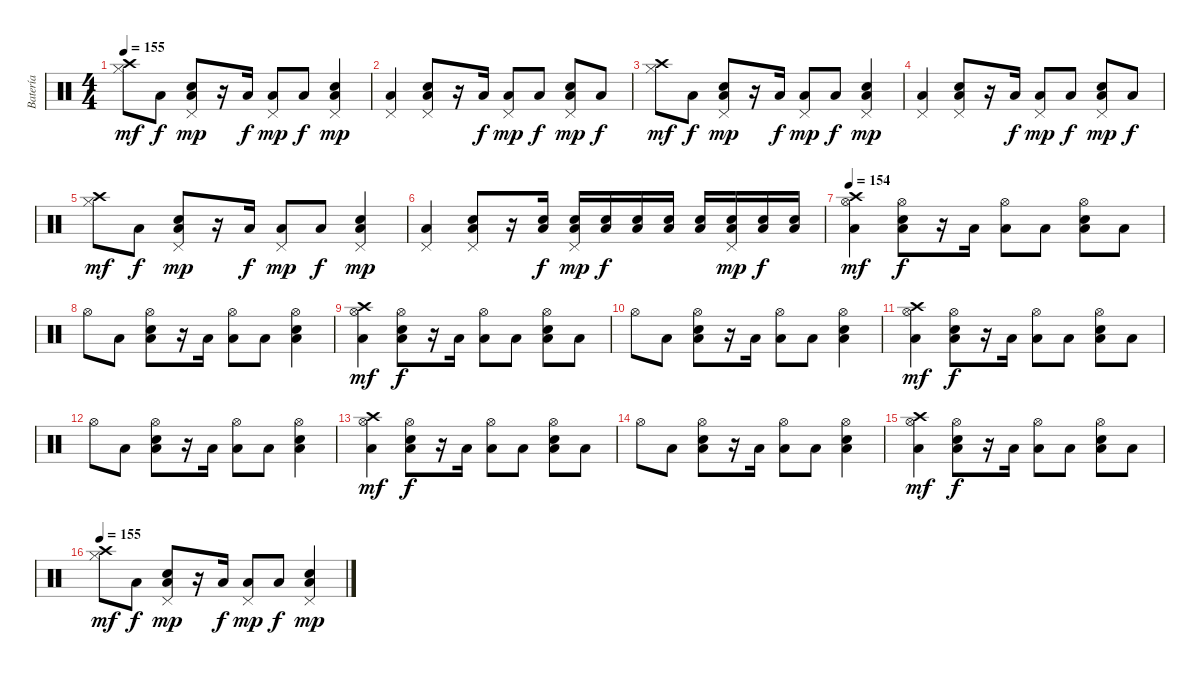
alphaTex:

\track ("Batería" "Batería") {instrument percussion}
\staff {score}
\articulation defaults
\ts (4 4)
\tempo 155
\clef neutral
\ks c
("Hi-Hat (closed)" "Crash high (hit)").8{dy mf} "Low Floor Tom (hit)".8{dy f} ("Low Floor Tom (hit)" "Snare (hit) 2" "Pedal Hi-Hat (hit)").8{dy mp} r.16 "Low Floor Tom (hit)".16{dy f} ("Low Floor Tom (hit)" "Pedal Hi-Hat (hit)").8{dy mp} "Low Floor Tom (hit)".8{dy f} ("Low Floor Tom (hit)" "Snare (hit) 2" "Pedal Hi-Hat (hit)").4{dy mp} |
("Low Floor Tom (hit)" "Pedal Hi-Hat (hit)").4 ("Low Floor Tom (hit)" "Snare (hit) 2" "Pedal Hi-Hat (hit)").8 r.16 "Low Floor Tom (hit)".16{dy f} ("Low Floor Tom (hit)" "Pedal Hi-Hat (hit)").8{dy mp} "Low Floor Tom (hit)".8{dy f} ("Low Floor Tom (hit)" "Snare (hit) 2" "Pedal Hi-Hat (hit)").8{dy mp} "Low Floor Tom (hit)".8{dy f} |
("Hi-Hat (closed)" "Crash high (hit)").8{dy mf} "Low Floor Tom (hit)".8{dy f} ("Low Floor Tom (hit)" "Snare (hit) 2" "Pedal Hi-Hat (hit)").8{dy mp} r.16 "Low Floor Tom (hit)".16{dy f} ("Low Floor Tom (hit)" "Pedal Hi-Hat (hit)").8{dy mp} "Low Floor Tom (hit)".8{dy f} ("Low Floor Tom (hit)" "Snare (hit) 2" "Pedal Hi-Hat (hit)").4{dy mp} |
("Low Floor Tom (hit)" "Pedal Hi-Hat (hit)").4 ("Low Floor Tom (hit)" "Snare (hit) 2" "Pedal Hi-Hat (hit)").8 r.16 "Low Floor Tom (hit)".16{dy f} ("Low Floor Tom (hit)" "Pedal Hi-Hat (hit)").8{dy mp} "Low Floor Tom (hit)".8{dy f} ("Low Floor Tom (hit)" "Snare (hit) 2" "Pedal Hi-Hat (hit)").8{dy mp} "Low Floor Tom (hit)".8{dy f} |
("Hi-Hat (closed)" "Crash high (hit)").8{dy mf} "Low Floor Tom (hit)".8{dy f} ("Low Floor Tom (hit)" "Snare (hit) 2" "Pedal Hi-Hat (hit)").8{dy mp} r.16 "Low Floor Tom (hit)".16{dy f} ("Low Floor Tom (hit)" "Pedal Hi-Hat (hit)").8{dy mp} "Low Floor Tom (hit)".8{dy f} ("Low Floor Tom (hit)" "Snare (hit) 2" "Pedal Hi-Hat (hit)").4{dy mp} |
("Low Floor Tom (hit)" "Pedal Hi-Hat (hit)").4 ("Low Floor Tom (hit)" "Snare (hit) 2" "Pedal Hi-Hat (hit)").8 r.16 ("Low Floor Tom (hit)" "Snare (hit) 2").16{dy f} ("Low Floor Tom (hit)" "Snare (hit) 2" "Pedal Hi-Hat (hit)").16{dy mp} ("Low Floor Tom (hit)" "Snare (hit) 2").16{dy f} ("Low Floor Tom (hit)" "Snare (hit) 2").16 ("Low Floor Tom (hit)" "Snare (hit) 2").16 ("Low Floor Tom (hit)" "Snare (hit) 2").16 ("Low Floor Tom (hit)" "Snare (hit) 2" "Pedal Hi-Hat (hit)").16{dy mp} ("Low Floor Tom (hit)" "Snare (hit) 2").16{dy f} ("Low Floor Tom (hit)" "Snare (hit) 2").16 |
\tempo 154
("Low Floor Tom (hit)" "Hi-Hat (open)" "Crash high (hit)").4{dy mf} ("Low Floor Tom (hit)" "Snare (hit) 2" "Hi-Hat (open)").8{dy f} r.16 "Low Floor Tom (hit)".16 ("Low Floor Tom (hit)" "Hi-Hat (open)").8 "Low Floor Tom (hit)".8 ("Low Floor Tom (hit)" "Snare (hit) 2" "Hi-Hat (open)").8 "Low Floor Tom (hit)".8 |
"Hi-Hat (open)".8 "Low Floor Tom (hit)".8 ("Low Floor Tom (hit)" "Snare (hit) 2" "Hi-Hat (open)").8 r.16 "Low Floor Tom (hit)".16 ("Low Floor Tom (hit)" "Hi-Hat (open)").8 "Low Floor Tom (hit)".8 ("Low Floor Tom (hit)" "Snare (hit) 2" "Hi-Hat (open)").4 |
("Low Floor Tom (hit)" "Hi-Hat (open)" "Crash high (hit)").4{dy mf} ("Low Floor Tom (hit)" "Snare (hit) 2" "Hi-Hat (open)").8{dy f} r.16 "Low Floor Tom (hit)".16 ("Low Floor Tom (hit)" "Hi-Hat (open)").8 "Low Floor Tom (hit)".8 ("Low Floor Tom (hit)" "Snare (hit) 2" "Hi-Hat (open)").8 "Low Floor Tom (hit)".8 |
"Hi-Hat (open)".8 "Low Floor Tom (hit)".8 ("Low Floor Tom (hit)" "Snare (hit) 2" "Hi-Hat (open)").8 r.16 "Low Floor Tom (hit)".16 ("Low Floor Tom (hit)" "Hi-Hat (open)").8 "Low Floor Tom (hit)".8 ("Low Floor Tom (hit)" "Snare (hit) 2" "Hi-Hat (open)").4 |
("Low Floor Tom (hit)" "Hi-Hat (open)" "Crash high (hit)").4{dy mf} ("Low Floor Tom (hit)" "Snare (hit) 2" "Hi-Hat (open)").8{dy f} r.16 "Low Floor Tom (hit)".16 ("Low Floor Tom (hit)" "Hi-Hat (open)").8 "Low Floor Tom (hit)".8 ("Low Floor Tom (hit)" "Snare (hit) 2" "Hi-Hat (open)").8 "Low Floor Tom (hit)".8 |
"Hi-Hat (open)".8 "Low Floor Tom (hit)".8 ("Low Floor Tom (hit)" "Snare (hit) 2" "Hi-Hat (open)").8 r.16 "Low Floor Tom (hit)".16 ("Low Floor Tom (hit)" "Hi-Hat (open)").8 "Low Floor Tom (hit)".8 ("Low Floor Tom (hit)" "Snare (hit) 2" "Hi-Hat (open)").4 |
("Low Floor Tom (hit)" "Hi-Hat (open)" "Crash high (hit)").4{dy mf} ("Low Floor Tom (hit)" "Snare (hit) 2" "Hi-Hat (open)").8{dy f} r.16 "Low Floor Tom (hit)".16 ("Low Floor Tom (hit)" "Hi-Hat (open)").8 "Low Floor Tom (hit)".8 ("Low Floor Tom (hit)" "Snare (hit) 2" "Hi-Hat (open)").8 "Low Floor Tom (hit)".8 |
"Hi-Hat (open)".8 "Low Floor Tom (hit)".8 ("Low Floor Tom (hit)" "Snare (hit) 2" "Hi-Hat (open)").8 r.16 "Low Floor Tom (hit)".16 ("Low Floor Tom (hit)" "Hi-Hat (open)").8 "Low Floor Tom (hit)".8 ("Low Floor Tom (hit)" "Snare (hit) 2" "Hi-Hat (open)").4 |
("Low Floor Tom (hit)" "Hi-Hat (open)" "Crash high (hit)").4{dy mf} ("Low Floor Tom (hit)" "Snare (hit) 2" "Hi-Hat (open)").8{dy f} r.16 "Low Floor Tom (hit)".16 ("Low Floor Tom (hit)" "Hi-Hat (open)").8 "Low Floor Tom (hit)".8 ("Low Floor Tom (hit)" "Snare (hit) 2" "Hi-Hat (open)").8 "Low Floor Tom (hit)".8 |
\tempo 155
("Hi-Hat (closed)" "Crash high (hit)").8{dy mf} "Low Floor Tom (hit)".8{dy f} ("Low Floor Tom (hit)" "Snare (hit) 2" "Pedal Hi-Hat (hit)").8{dy mp} r.16 "Low Floor Tom (hit)".16{dy f} ("Low Floor Tom (hit)" "Pedal Hi-Hat (hit)").8{dy mp} "Low Floor Tom (hit)".8{dy f} ("Low Floor Tom (hit)" "Snare (hit) 2" "Pedal Hi-Hat (hit)").4{dy mp}
